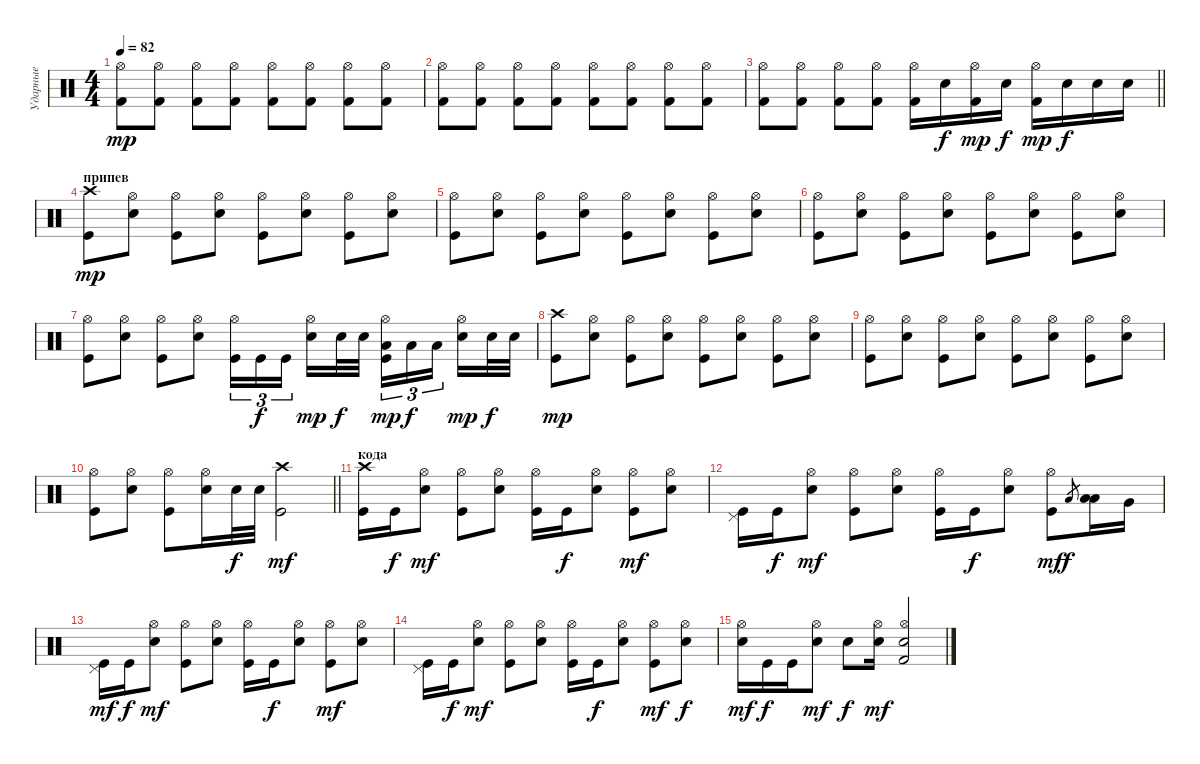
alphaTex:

\track ("Ударные" "Ударные") {instrument percussion}
\staff {score}
\articulation defaults
\ts (4 4)
\tempo 82
\clef neutral
\ks c
("Kick (hit) 2" "Hi-Hat (open)").8{dy mp} ("Kick (hit) 2" "Hi-Hat (open)").8 ("Kick (hit) 2" "Hi-Hat (open)").8 ("Kick (hit) 2" "Hi-Hat (open)").8 ("Kick (hit) 2" "Hi-Hat (open)").8 ("Kick (hit) 2" "Hi-Hat (open)").8 ("Kick (hit) 2" "Hi-Hat (open)").8 ("Kick (hit) 2" "Hi-Hat (open)").8 |
("Kick (hit) 2" "Hi-Hat (open)").8 ("Kick (hit) 2" "Hi-Hat (open)").8 ("Kick (hit) 2" "Hi-Hat (open)").8 ("Kick (hit) 2" "Hi-Hat (open)").8 ("Kick (hit) 2" "Hi-Hat (open)").8 ("Kick (hit) 2" "Hi-Hat (open)").8 ("Kick (hit) 2" "Hi-Hat (open)").8 ("Kick (hit) 2" "Hi-Hat (open)").8 |
\barLineRight lightlight
("Kick (hit) 2" "Hi-Hat (open)").8 ("Kick (hit) 2" "Hi-Hat (open)").8 ("Kick (hit) 2" "Hi-Hat (open)").8 ("Kick (hit) 2" "Hi-Hat (open)").8 ("Kick (hit) 2" "Hi-Hat (open)").16 "Snare (hit) 2".16{dy f} ("Kick (hit) 2" "Hi-Hat (open)").16{dy mp} "Snare (hit) 2".16{dy f} ("Kick (hit) 2" "Hi-Hat (open)").16{dy mp} "Snare (hit) 2".16{dy f} "Snare (hit) 2".16 "Snare (hit) 2".16 |
\section ("" "припев")
("Kick (hit)" "Crash high (hit)").8{dy mp} ("Snare (hit) 2" "Hi-Hat (open)").8 ("Kick (hit)" "Hi-Hat (open)").8 ("Snare (hit) 2" "Hi-Hat (open)").8 ("Kick (hit)" "Hi-Hat (open)").8 ("Snare (hit) 2" "Hi-Hat (open)").8 ("Kick (hit)" "Hi-Hat (open)").8 ("Snare (hit) 2" "Hi-Hat (open)").8 |
("Kick (hit)" "Hi-Hat (open)").8 ("Snare (hit) 2" "Hi-Hat (open)").8 ("Kick (hit)" "Hi-Hat (open)").8 ("Snare (hit) 2" "Hi-Hat (open)").8 ("Kick (hit)" "Hi-Hat (open)").8 ("Snare (hit) 2" "Hi-Hat (open)").8 ("Kick (hit)" "Hi-Hat (open)").8 ("Snare (hit) 2" "Hi-Hat (open)").8 |
("Kick (hit)" "Hi-Hat (open)").8 ("Snare (hit) 2" "Hi-Hat (open)").8 ("Kick (hit)" "Hi-Hat (open)").8 ("Snare (hit) 2" "Hi-Hat (open)").8 ("Kick (hit)" "Hi-Hat (open)").8 ("Snare (hit) 2" "Hi-Hat (open)").8 ("Kick (hit)" "Hi-Hat (open)").8 ("Snare (hit) 2" "Hi-Hat (open)").8 |
("Kick (hit)" "Hi-Hat (open)").8 ("Snare (hit) 2" "Hi-Hat (open)").8 ("Kick (hit)" "Hi-Hat (open)").8 ("Snare (hit) 2" "Hi-Hat (open)").8 ("Kick (hit)" "Hi-Hat (open)").16{tu (3 2)} "Kick (hit)".16{tu (3 2) dy f} "Kick (hit)".16{tu (3 2) beam splitsecondary} ("Snare (hit) 2" "Hi-Hat (open)").16{dy mp} "Snare (hit) 2".32{dy f} "Snare (hit) 2".32 ("Kick (hit)" "Hi-Hat (open)" "Low Floor Tom (hit)").16{tu (3 2) dy mp} "Low Floor Tom (hit)".16{tu (3 2) dy f} "Low Floor Tom (hit)".16{tu (3 2) beam splitsecondary} ("Snare (hit) 2" "Hi-Hat (open)").16{dy mp} "Snare (hit) 2".32{dy f} "Snare (hit) 2".32 |
("Kick (hit)" "Crash high (hit)").8{dy mp} ("Snare (hit) 2" "Hi-Hat (open)").8 ("Kick (hit)" "Hi-Hat (open)").8 ("Snare (hit) 2" "Hi-Hat (open)").8 ("Kick (hit)" "Hi-Hat (open)").8 ("Snare (hit) 2" "Hi-Hat (open)").8 ("Kick (hit)" "Hi-Hat (open)").8 ("Snare (hit) 2" "Hi-Hat (open)").8 |
("Kick (hit)" "Hi-Hat (open)").8 ("Snare (hit) 2" "Hi-Hat (open)").8 ("Kick (hit)" "Hi-Hat (open)").8 ("Snare (hit) 2" "Hi-Hat (open)").8 ("Kick (hit)" "Hi-Hat (open)").8 ("Snare (hit) 2" "Hi-Hat (open)").8 ("Kick (hit)" "Hi-Hat (open)").8 ("Snare (hit) 2" "Hi-Hat (open)").8 |
\barLineRight lightlight
("Kick (hit)" "Hi-Hat (open)").8 ("Snare (hit) 2" "Hi-Hat (open)").8 ("Kick (hit)" "Hi-Hat (open)").8 ("Snare (hit) 2" "Hi-Hat (open)").16 "Snare (hit) 2".32{dy f} "Snare (hit) 2".32 ("Kick (hit)" "Crash high (hit)").2{dy mf} |
\section ("" "кода")
("Kick (hit)" "Crash high (hit)").16 "Kick (hit)".16{dy f} ("Snare (hit) 2" "Hi-Hat (open)").8{dy mf} ("Kick (hit)" "Hi-Hat (open)").8 ("Snare (hit) 2" "Hi-Hat (open)").8 ("Kick (hit)" "Hi-Hat (open)").16 "Kick (hit)".16{dy f} ("Snare (hit) 2" "Hi-Hat (open)").8 ("Kick (hit)" "Hi-Hat (open)").8{dy mf} ("Snare (hit) 2" "Hi-Hat (open)").8 |
("Kick (hit)" "Pedal Hi-Hat (hit)").16 "Kick (hit)".16{dy f} ("Snare (hit) 2" "Hi-Hat (open)").8{dy mf} ("Kick (hit)" "Hi-Hat (open)").8 ("Snare (hit) 2" "Hi-Hat (open)").8 ("Kick (hit)" "Hi-Hat (open)").16 "Kick (hit)".16{dy f} ("Snare (hit) 2" "Hi-Hat (open)").8 ("Kick (hit)" "Hi-Hat (open)").8{dy mf} "Low Tom (hit)".8{gr dy f} ("Low Tom (hit)" "Low Tom (hit)").16 "Very Low Tom (hit)".16 |
("Kick (hit)" "Pedal Hi-Hat (hit)").16{dy mf} "Kick (hit)".16{dy f} ("Snare (hit) 2" "Hi-Hat (open)").8{dy mf} ("Kick (hit)" "Hi-Hat (open)").8 ("Snare (hit) 2" "Hi-Hat (open)").8 ("Kick (hit)" "Hi-Hat (open)").16 "Kick (hit)".16{dy f} ("Snare (hit) 2" "Hi-Hat (open)").8 ("Kick (hit)" "Hi-Hat (open)").8{dy mf} ("Snare (hit) 2" "Hi-Hat (open)").8 |
("Kick (hit)" "Pedal Hi-Hat (hit)").16 "Kick (hit)".16{dy f} ("Snare (hit) 2" "Hi-Hat (open)").8{dy mf} ("Kick (hit)" "Hi-Hat (open)").8 ("Snare (hit) 2" "Hi-Hat (open)").8 ("Kick (hit)" "Hi-Hat (open)").16 "Kick (hit)".16{dy f} ("Snare (hit) 2" "Hi-Hat (open)").8 ("Kick (hit)" "Hi-Hat (open)").8{dy mf} ("Snare (hit) 2" "Hi-Hat (open)").8{dy f} |
("Snare (hit) 2" "Hi-Hat (open)").16{dy mf} "Kick (hit)".16{dy f} "Kick (hit)".16 ("Snare (hit) 2" "Hi-Hat (open)").8{dy mf} "Snare (hit) 2".8{dy f} ("Snare (hit) 2" "Hi-Hat (open)").16{dy mf} ("Kick (hit) 2" "Snare (hit) 2" "Hi-Hat (open)").2
